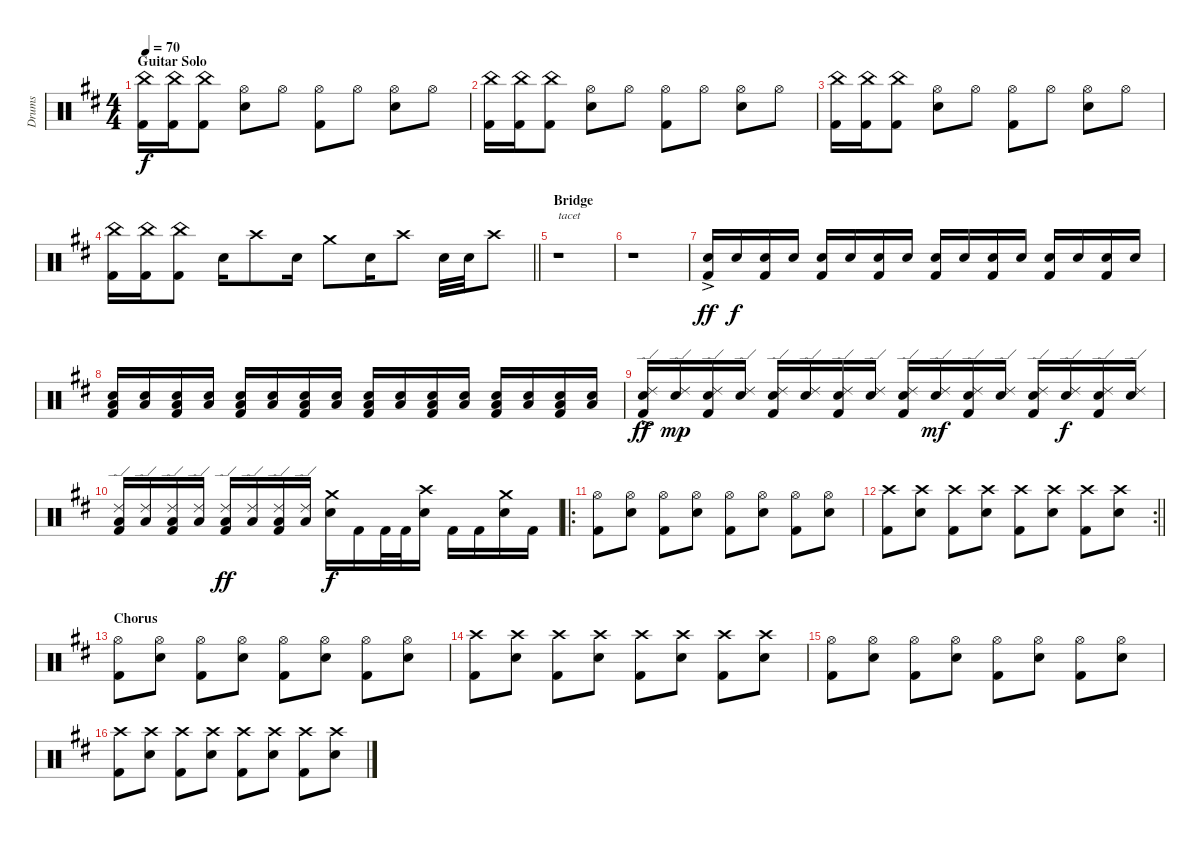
\track ("Drums" "Drums") {instrument percussion}
\staff {score}
\articulation defaults
\ts (4 4)
\section ("" "Guitar Solo")
\tempo 70
\clef neutral
\ks bminor
("Kick (hit) 2" "China (hit)").16{dy f} ("Kick (hit) 2" "China (hit)").16 ("Kick (hit) 2" "China (hit)").8 ("Electric Snare (hit)" "Hi-Hat (open)").8 "Hi-Hat (open)".8 ("Hi-Hat (open)" "Kick (hit) 2").8 "Hi-Hat (open)".8 ("Hi-Hat (open)" "Electric Snare (hit)").8 "Hi-Hat (open)".8 |
("Kick (hit) 2" "China (hit)").16 ("Kick (hit) 2" "China (hit)").16 ("Kick (hit) 2" "China (hit)").8 ("Snare (hit) 2" "Hi-Hat (open)").8 "Hi-Hat (open)".8 ("Hi-Hat (open)" "Kick (hit) 2").8 "Hi-Hat (open)".8 ("Hi-Hat (open)" "Electric Snare (hit)").8 "Hi-Hat (open)".8 |
("Kick (hit) 2" "China (hit)").16 ("Kick (hit) 2" "China (hit)").16 ("Kick (hit) 2" "China (hit)").8 ("Electric Snare (hit)" "Hi-Hat (open)").8 "Hi-Hat (open)".8 ("Hi-Hat (open)" "Kick (hit) 2").8 "Hi-Hat (open)".8 ("Hi-Hat (open)" "Electric Snare (hit)").8 "Hi-Hat (open)".8 |
\barLineRight lightlight
("Kick (hit) 2" "China (hit)").16 ("Kick (hit) 2" "China (hit)").16 ("Kick (hit) 2" "China (hit)").8 "Electric Snare (hit)".16 "Crash high (hit)".8 "Electric Snare (hit)".16 "Crash medium (hit)".8 "Electric Snare (hit)".16 "Crash high (hit)".8 "Electric Snare (hit)".32 "Electric Snare (hit)".32 "Crash high (hit)".8 |
\section ("" "Bridge")
r.1{txt "tacet"} |
r.1 |
("Electric Snare (hit)"{ac} "Kick (hit) 2").16{dy ff} "Electric Snare (hit)".16{dy f volume 5} ("Electric Snare (hit)" "Kick (hit) 2").16{volume 16} "Electric Snare (hit)".16 ("Electric Snare (hit)" "Kick (hit) 2").16 "Electric Snare (hit)".16 ("Electric Snare (hit)" "Kick (hit) 2").16 "Electric Snare (hit)".16 ("Electric Snare (hit)" "Kick (hit) 2").16 "Electric Snare (hit)".16 ("Electric Snare (hit)" "Kick (hit) 2").16 "Electric Snare (hit)".16 ("Electric Snare (hit)" "Kick (hit) 2").16 "Electric Snare (hit)".16 ("Electric Snare (hit)" "Kick (hit) 2").16 "Electric Snare (hit)".16 |
("Electric Snare (hit)" "Low Tom (hit)" "Kick (hit) 2").16 ("Electric Snare (hit)" "Low Tom (hit)").16 ("Electric Snare (hit)" "Low Tom (hit)" "Kick (hit) 2").16 ("Electric Snare (hit)" "Low Tom (hit)").16 ("Electric Snare (hit)" "Low Tom (hit)" "Kick (hit) 2").16 ("Electric Snare (hit)" "Low Tom (hit)").16 ("Electric Snare (hit)" "Low Tom (hit)" "Kick (hit) 2").16 ("Electric Snare (hit)" "Low Tom (hit)").16 ("Electric Snare (hit)" "Low Tom (hit)" "Kick (hit) 2").16 ("Electric Snare (hit)" "Low Tom (hit)").16 ("Electric Snare (hit)" "Low Tom (hit)" "Kick (hit) 2").16 ("Electric Snare (hit)" "Low Tom (hit)").16 ("Electric Snare (hit)" "Low Tom (hit)" "Kick (hit) 2").16 ("Electric Snare (hit)" "Low Tom (hit)").16 ("Electric Snare (hit)" "Low Tom (hit)" "Kick (hit) 2").16 ("Electric Snare (hit)" "Low Tom (hit)").16 |
("Electric Snare (hit)"{ac} "Kick (hit) 2" "Ride (edge) 2").16{dy ff} ("Electric Snare (hit)" "Ride (edge) 2").16{dy mp} ("Electric Snare (hit)" "Kick (hit) 2" "Ride (edge) 2").16 ("Electric Snare (hit)" "Ride (edge) 2").16 ("Electric Snare (hit)" "Kick (hit) 2" "Ride (edge) 2").16 ("Electric Snare (hit)" "Ride (edge) 2").16 ("Electric Snare (hit)" "Kick (hit) 2" "Ride (edge) 2").16 ("Electric Snare (hit)" "Ride (edge) 2").16 ("Electric Snare (hit)" "Kick (hit) 2" "Ride (edge) 2").16 ("Electric Snare (hit)" "Ride (edge) 2").16{dy mf} ("Electric Snare (hit)" "Kick (hit) 2" "Ride (edge) 2").16 ("Electric Snare (hit)" "Ride (edge) 2").16 ("Electric Snare (hit)" "Kick (hit) 2" "Ride (edge) 2").16 ("Electric Snare (hit)" "Ride (edge) 2").16{dy f} ("Electric Snare (hit)" "Kick (hit) 2" "Ride (edge) 2").16 ("Electric Snare (hit)" "Ride (edge) 2").16 |
("Kick (hit) 2" "Low Tom (hit)" "Ride (edge) 2").16 ("Low Tom (hit)" "Ride (edge) 2").16 ("Kick (hit) 2" "Low Tom (hit)" "Ride (edge) 2").16 ("Low Tom (hit)" "Ride (edge) 2").16 ("Kick (hit) 2" "Low Tom (hit)" "Ride (edge) 2").16{dy ff} ("Low Tom (hit)" "Ride (edge) 2").16 ("Kick (hit) 2" "Low Tom (hit)" "Ride (edge) 2").16 ("Low Tom (hit)" "Ride (edge) 2").16 ("Crash medium (hit)" "Electric Snare (hit)").16{dy f} "Kick (hit) 2".16 "Kick (hit) 2".32 "Kick (hit) 2".32 ("Electric Snare (hit)" "Crash high (hit)").16 "Kick (hit) 2".16 "Kick (hit) 2".16 ("Crash medium (hit)" "Electric Snare (hit)").16 "Kick (hit) 2".16 |
\ro
("Hi-Hat (open)" "Kick (hit) 2").8 ("Hi-Hat (open)" "Electric Snare (hit)").8 ("Hi-Hat (open)" "Kick (hit) 2").8 ("Hi-Hat (open)" "Electric Snare (hit)").8 ("Hi-Hat (open)" "Kick (hit) 2").8 ("Hi-Hat (open)" "Electric Snare (hit)").8 ("Hi-Hat (open)" "Kick (hit) 2").8 ("Hi-Hat (open)" "Electric Snare (hit)").8 |
\rc 2
\barLineRight lightlight
("Crash high (hit)" "Kick (hit) 2").8 ("Crash high (hit)" "Electric Snare (hit)").8 ("Crash high (hit)" "Kick (hit) 2").8 ("Crash high (hit)" "Electric Snare (hit)").8 ("Crash high (hit)" "Kick (hit) 2").8 ("Crash high (hit)" "Electric Snare (hit)").8 ("Crash high (hit)" "Kick (hit) 2").8 ("Crash high (hit)" "Electric Snare (hit)").8 |
\section ("" "Chorus")
("Hi-Hat (open)" "Kick (hit) 2").8 ("Hi-Hat (open)" "Electric Snare (hit)").8 ("Hi-Hat (open)" "Kick (hit) 2").8 ("Hi-Hat (open)" "Electric Snare (hit)").8 ("Hi-Hat (open)" "Kick (hit) 2").8 ("Hi-Hat (open)" "Electric Snare (hit)").8 ("Hi-Hat (open)" "Kick (hit) 2").8 ("Hi-Hat (open)" "Electric Snare (hit)").8 |
("Crash high (hit)" "Kick (hit) 2").8 ("Crash high (hit)" "Electric Snare (hit)").8 ("Crash high (hit)" "Kick (hit) 2").8 ("Crash high (hit)" "Electric Snare (hit)").8 ("Crash high (hit)" "Kick (hit) 2").8 ("Crash high (hit)" "Electric Snare (hit)").8 ("Crash high (hit)" "Kick (hit) 2").8 ("Crash high (hit)" "Electric Snare (hit)").8 |
("Hi-Hat (open)" "Kick (hit) 2").8 ("Hi-Hat (open)" "Electric Snare (hit)").8 ("Hi-Hat (open)" "Kick (hit) 2").8 ("Hi-Hat (open)" "Electric Snare (hit)").8 ("Hi-Hat (open)" "Kick (hit) 2").8 ("Hi-Hat (open)" "Electric Snare (hit)").8 ("Hi-Hat (open)" "Kick (hit) 2").8 ("Hi-Hat (open)" "Electric Snare (hit)").8 |
("Crash high (hit)" "Kick (hit) 2").8 ("Crash high (hit)" "Electric Snare (hit)").8 ("Crash high (hit)" "Kick (hit) 2").8 ("Crash high (hit)" "Electric Snare (hit)").8 ("Crash high (hit)" "Kick (hit) 2").8 ("Crash high (hit)" "Electric Snare (hit)").8 ("Crash high (hit)" "Kick (hit) 2").8 ("Crash high (hit)" "Electric Snare (hit)").8
